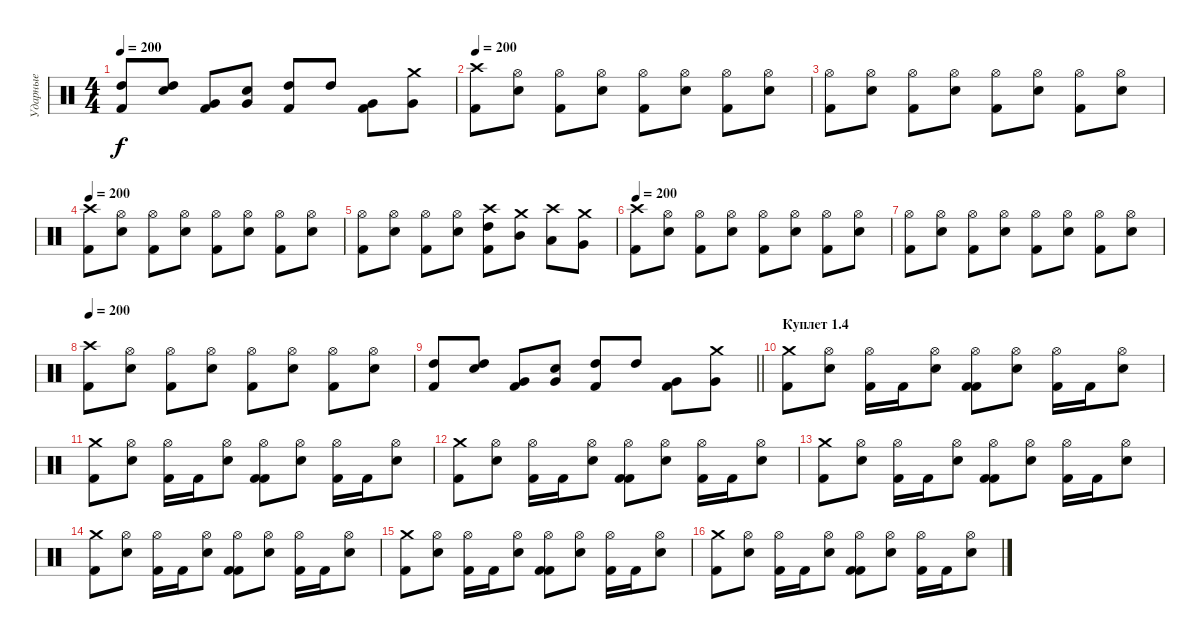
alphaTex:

\track ("Ударные" "Ударные") {instrument percussion}
\staff {score}
\articulation defaults
\ts (4 4)
\tempo 200
\clef neutral
\ks c
("High Tom (hit)" "Kick (hit) 2").8{dy f} ("High Tom (hit)" "Snare (hit) 2").8 ("Very Low Tom (hit)" "Kick (hit) 2").8 ("Very Low Tom (hit)" "Snare (hit) 2").8 ("High Tom (hit)" "Kick (hit) 2").8 "High Tom (hit)".8 ("Very Low Tom (hit)" "Kick (hit) 2").8 ("Crash medium (hit)" "Very Low Tom (hit)").8 |
\tempo 200
("Crash high (hit)" "Kick (hit) 2").8 ("Hi-Hat (open)" "Snare (hit) 2").8 ("Hi-Hat (open)" "Kick (hit) 2").8 ("Hi-Hat (open)" "Snare (hit) 2").8 ("Hi-Hat (open)" "Kick (hit) 2").8 ("Hi-Hat (open)" "Snare (hit) 2").8 ("Hi-Hat (open)" "Kick (hit) 2").8 ("Hi-Hat (open)" "Snare (hit) 2").8 |
("Hi-Hat (open)" "Kick (hit) 2").8 ("Hi-Hat (open)" "Snare (hit) 2").8 ("Hi-Hat (open)" "Kick (hit) 2").8 ("Hi-Hat (open)" "Snare (hit) 2").8 ("Hi-Hat (open)" "Kick (hit) 2").8 ("Hi-Hat (open)" "Snare (hit) 2").8 ("Hi-Hat (open)" "Kick (hit) 2").8 ("Hi-Hat (open)" "Snare (hit) 2").8 |
\tempo 200
("Crash high (hit)" "Kick (hit) 2").8 ("Hi-Hat (open)" "Snare (hit) 2").8 ("Hi-Hat (open)" "Kick (hit) 2").8 ("Hi-Hat (open)" "Snare (hit) 2").8 ("Hi-Hat (open)" "Kick (hit) 2").8 ("Hi-Hat (open)" "Snare (hit) 2").8 ("Hi-Hat (open)" "Kick (hit) 2").8 ("Hi-Hat (open)" "Snare (hit) 2").8 |
("Hi-Hat (open)" "Kick (hit) 2").8 ("Hi-Hat (open)" "Snare (hit) 2").8 ("Hi-Hat (open)" "Kick (hit) 2").8 ("Hi-Hat (open)" "Snare (hit) 2").8 ("Crash high (hit)" "High Tom (hit)" "Kick (hit) 2").8 ("Crash medium (hit)" "Mid Tom (hit)").8 ("Crash high (hit)" "Low Tom (hit)").8 ("Crash medium (hit)" "Very Low Tom (hit)").8 |
\tempo 200
("Crash high (hit)" "Kick (hit) 2").8 ("Hi-Hat (open)" "Snare (hit) 2").8 ("Hi-Hat (open)" "Kick (hit) 2").8 ("Hi-Hat (open)" "Snare (hit) 2").8 ("Hi-Hat (open)" "Kick (hit) 2").8 ("Hi-Hat (open)" "Snare (hit) 2").8 ("Hi-Hat (open)" "Kick (hit) 2").8 ("Hi-Hat (open)" "Snare (hit) 2").8 |
("Hi-Hat (open)" "Kick (hit) 2").8 ("Hi-Hat (open)" "Snare (hit) 2").8 ("Hi-Hat (open)" "Kick (hit) 2").8 ("Hi-Hat (open)" "Snare (hit) 2").8 ("Hi-Hat (open)" "Kick (hit) 2").8 ("Hi-Hat (open)" "Snare (hit) 2").8 ("Hi-Hat (open)" "Kick (hit) 2").8 ("Hi-Hat (open)" "Snare (hit) 2").8 |
\tempo 200
("Crash high (hit)" "Kick (hit) 2").8 ("Hi-Hat (open)" "Snare (hit) 2").8 ("Hi-Hat (open)" "Kick (hit) 2").8 ("Hi-Hat (open)" "Snare (hit) 2").8 ("Hi-Hat (open)" "Kick (hit) 2").8 ("Hi-Hat (open)" "Snare (hit) 2").8 ("Hi-Hat (open)" "Kick (hit) 2").8 ("Hi-Hat (open)" "Snare (hit) 2").8 |
\barLineRight lightlight
("High Tom (hit)" "Kick (hit) 2").8 ("High Tom (hit)" "Snare (hit) 2").8 ("Very Low Tom (hit)" "Kick (hit) 2").8 ("Very Low Tom (hit)" "Snare (hit) 2").8 ("High Tom (hit)" "Kick (hit) 2").8 "High Tom (hit)".8 ("Very Low Tom (hit)" "Kick (hit) 2").8 ("Crash medium (hit)" "Very Low Tom (hit)").8 |
\section ("" "Куплет 1.4")
("Kick (hit) 2" "Crash medium (hit)").8 ("Hi-Hat (open)" "Electric Snare (hit)").8 ("Kick (hit) 2" "Hi-Hat (open)").16 "Kick (hit) 2".16 ("Hi-Hat (open)" "Electric Snare (hit)").8 ("Kick (hit) 2" "Kick (hit) 2" "Hi-Hat (open)").8 ("Hi-Hat (open)" "Electric Snare (hit)").8 ("Kick (hit) 2" "Hi-Hat (open)").16 "Kick (hit) 2".16 ("Hi-Hat (open)" "Electric Snare (hit)").8 |
("Kick (hit) 2" "Crash medium (hit)").8 ("Hi-Hat (open)" "Electric Snare (hit)").8 ("Kick (hit) 2" "Hi-Hat (open)").16 "Kick (hit) 2".16 ("Hi-Hat (open)" "Electric Snare (hit)").8 ("Kick (hit) 2" "Kick (hit) 2" "Hi-Hat (open)").8 ("Hi-Hat (open)" "Electric Snare (hit)").8 ("Kick (hit) 2" "Hi-Hat (open)").16 "Kick (hit) 2".16 ("Hi-Hat (open)" "Electric Snare (hit)").8 |
("Kick (hit) 2" "Crash medium (hit)").8 ("Hi-Hat (open)" "Electric Snare (hit)").8 ("Kick (hit) 2" "Hi-Hat (open)").16 "Kick (hit) 2".16 ("Hi-Hat (open)" "Electric Snare (hit)").8 ("Kick (hit) 2" "Kick (hit) 2" "Hi-Hat (open)").8 ("Hi-Hat (open)" "Electric Snare (hit)").8 ("Kick (hit) 2" "Hi-Hat (open)").16 "Kick (hit) 2".16 ("Hi-Hat (open)" "Electric Snare (hit)").8 |
("Kick (hit) 2" "Crash medium (hit)").8 ("Hi-Hat (open)" "Electric Snare (hit)").8 ("Kick (hit) 2" "Hi-Hat (open)").16 "Kick (hit) 2".16 ("Hi-Hat (open)" "Electric Snare (hit)").8 ("Kick (hit) 2" "Kick (hit) 2" "Hi-Hat (open)").8 ("Hi-Hat (open)" "Electric Snare (hit)").8 ("Kick (hit) 2" "Hi-Hat (open)").16 "Kick (hit) 2".16 ("Hi-Hat (open)" "Electric Snare (hit)").8 |
("Kick (hit) 2" "Crash medium (hit)").8 ("Hi-Hat (open)" "Electric Snare (hit)").8 ("Kick (hit) 2" "Hi-Hat (open)").16 "Kick (hit) 2".16 ("Hi-Hat (open)" "Electric Snare (hit)").8 ("Kick (hit) 2" "Kick (hit) 2" "Hi-Hat (open)").8 ("Hi-Hat (open)" "Electric Snare (hit)").8 ("Kick (hit) 2" "Hi-Hat (open)").16 "Kick (hit) 2".16 ("Hi-Hat (open)" "Electric Snare (hit)").8 |
("Kick (hit) 2" "Crash medium (hit)").8 ("Hi-Hat (open)" "Electric Snare (hit)").8 ("Kick (hit) 2" "Hi-Hat (open)").16 "Kick (hit) 2".16 ("Hi-Hat (open)" "Electric Snare (hit)").8 ("Kick (hit) 2" "Kick (hit) 2" "Hi-Hat (open)").8 ("Hi-Hat (open)" "Electric Snare (hit)").8 ("Kick (hit) 2" "Hi-Hat (open)").16 "Kick (hit) 2".16 ("Hi-Hat (open)" "Electric Snare (hit)").8 |
("Kick (hit) 2" "Crash medium (hit)").8 ("Hi-Hat (open)" "Electric Snare (hit)").8 ("Kick (hit) 2" "Hi-Hat (open)").16 "Kick (hit) 2".16 ("Hi-Hat (open)" "Electric Snare (hit)").8 ("Kick (hit) 2" "Kick (hit) 2" "Hi-Hat (open)").8 ("Hi-Hat (open)" "Electric Snare (hit)").8 ("Kick (hit) 2" "Hi-Hat (open)").16 "Kick (hit) 2".16 ("Hi-Hat (open)" "Electric Snare (hit)").8
